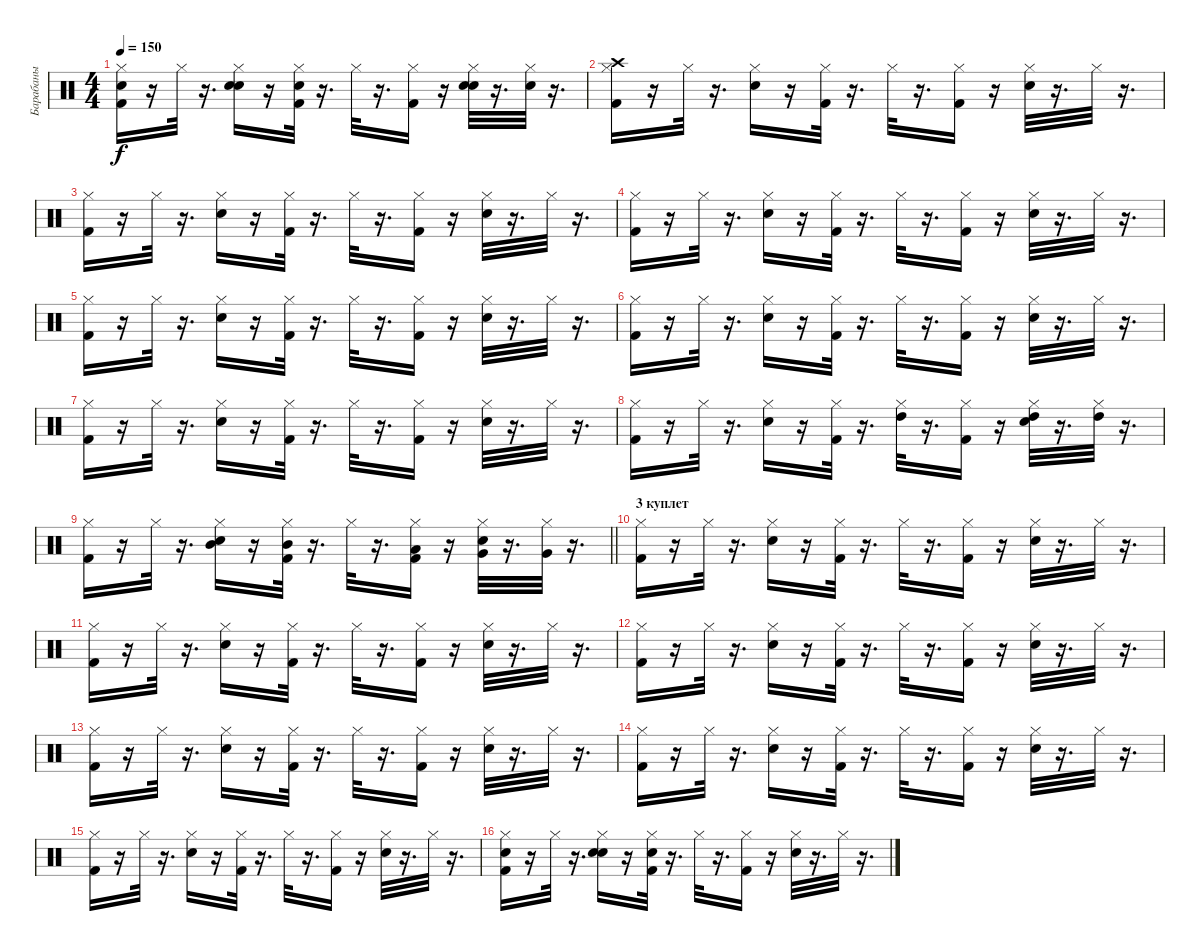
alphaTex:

\track ("Барабаны" "Барабаны") {instrument percussion}
\staff {score}
\articulation defaults
\ts (4 4)
\tempo 150
\clef neutral
\ks c
("Hand Clap (hit)" "Kick (hit) 2" "Hi-Hat (closed)").16{dy f} r.16 "Hi-Hat (closed)".32 r.16{d} ("Electric Snare (hit)" "Hand Clap (hit)" "Hi-Hat (closed)").16 r.16 ("Kick (hit) 2" "Hand Clap (hit)" "Hi-Hat (closed)").32 r.16{d} "Hi-Hat (closed)".32 r.16{d} ("Kick (hit) 2" "Hi-Hat (closed)").16 r.16 ("Electric Snare (hit)" "Hi-Hat (closed)" "Hand Clap (hit)").32 r.16{d} ("Hi-Hat (closed)" "Hand Clap (hit)").32 r.16{d} |
("Hi-Hat (closed)" "Crash high (hit)" "Kick (hit) 2").16 r.16 "Hi-Hat (closed)".32 r.16{d} ("Electric Snare (hit)" "Hi-Hat (closed)").16 r.16 ("Hi-Hat (closed)" "Kick (hit) 2").32 r.16{d} "Hi-Hat (closed)".32 r.16{d} ("Hi-Hat (closed)" "Kick (hit) 2").16 r.16 ("Hi-Hat (closed)" "Electric Snare (hit)").32 r.16{d} "Hi-Hat (closed)".32 r.16{d} |
("Hi-Hat (closed)" "Kick (hit) 2").16 r.16 "Hi-Hat (closed)".32 r.16{d} ("Electric Snare (hit)" "Hi-Hat (closed)").16 r.16 ("Kick (hit) 2" "Hi-Hat (closed)").32 r.16{d} "Hi-Hat (closed)".32 r.16{d} ("Kick (hit) 2" "Hi-Hat (closed)").16 r.16 ("Electric Snare (hit)" "Hi-Hat (closed)").32 r.16{d} "Hi-Hat (closed)".32 r.16{d} |
("Hi-Hat (closed)" "Kick (hit) 2").16 r.16 "Hi-Hat (closed)".32 r.16{d} ("Electric Snare (hit)" "Hi-Hat (closed)").16 r.16 ("Kick (hit) 2" "Hi-Hat (closed)").32 r.16{d} "Hi-Hat (closed)".32 r.16{d} ("Kick (hit) 2" "Hi-Hat (closed)").16 r.16 ("Electric Snare (hit)" "Hi-Hat (closed)").32 r.16{d} "Hi-Hat (closed)".32 r.16{d} |
("Kick (hit) 2" "Hi-Hat (closed)").16 r.16 "Hi-Hat (closed)".32 r.16{d} ("Electric Snare (hit)" "Hi-Hat (closed)").16 r.16 ("Kick (hit) 2" "Hi-Hat (closed)").32 r.16{d} "Hi-Hat (closed)".32 r.16{d} ("Kick (hit) 2" "Hi-Hat (closed)").16 r.16 ("Electric Snare (hit)" "Hi-Hat (closed)").32 r.16{d} "Hi-Hat (closed)".32 r.16{d} |
("Hi-Hat (closed)" "Kick (hit) 2").16 r.16 "Hi-Hat (closed)".32 r.16{d} ("Electric Snare (hit)" "Hi-Hat (closed)").16 r.16 ("Hi-Hat (closed)" "Kick (hit) 2").32 r.16{d} "Hi-Hat (closed)".32 r.16{d} ("Hi-Hat (closed)" "Kick (hit) 2").16 r.16 ("Electric Snare (hit)" "Hi-Hat (closed)").32 r.16{d} "Hi-Hat (closed)".32 r.16{d} |
("Hi-Hat (closed)" "Kick (hit) 2").16 r.16 "Hi-Hat (closed)".32 r.16{d} ("Electric Snare (hit)" "Hi-Hat (closed)").16 r.16 ("Kick (hit) 2" "Hi-Hat (closed)").32 r.16{d} "Hi-Hat (closed)".32 r.16{d} ("Kick (hit) 2" "Hi-Hat (closed)").16 r.16 ("Electric Snare (hit)" "Hi-Hat (closed)").32 r.16{d} "Hi-Hat (closed)".32 r.16{d} |
("Kick (hit) 2" "Hi-Hat (closed)").16 r.16 "Hi-Hat (closed)".32 r.16{d} ("Electric Snare (hit)" "Hi-Hat (closed)").16 r.16 ("Kick (hit) 2" "Hi-Hat (closed)").32 r.16{d} ("Hi-Hat (closed)" "High Tom (hit)").32 r.16{d} ("Kick (hit) 2" "Hi-Hat (closed)").16 r.16 ("Electric Snare (hit)" "High Tom (hit)" "Hi-Hat (closed)").32 r.16{d} ("Hi-Hat (closed)" "High Tom (hit)").32 r.16{d} |
\barLineRight lightlight
("Hi-Hat (closed)" "Kick (hit) 2").16 r.16 "Hi-Hat (closed)".32 r.16{d} ("Electric Snare (hit)" "Hi-Hat (closed)" "Mid Tom (hit)").16 r.16 ("Kick (hit) 2" "Hi-Hat (closed)" "Mid Tom (hit)").32 r.16{d} "Hi-Hat (closed)".32 r.16{d} ("Kick (hit) 2" "Hi-Hat (closed)" "Low Tom (hit)").16 r.16 ("Electric Snare (hit)" "Very Low Tom (hit)" "Hi-Hat (closed)").32 r.16{d} ("Hi-Hat (closed)" "Very Low Tom (hit)").32 r.16{d} |
\section ("" "3 куплет")
("Hi-Hat (closed)" "Kick (hit) 2").16 r.16 "Hi-Hat (closed)".32 r.16{d} ("Hi-Hat (closed)" "Electric Snare (hit)").16 r.16 ("Kick (hit) 2" "Hi-Hat (closed)").32 r.16{d} "Hi-Hat (closed)".32 r.16{d} ("Hi-Hat (closed)" "Kick (hit) 2").16 r.16 ("Electric Snare (hit)" "Hi-Hat (closed)").32 r.16{d} "Hi-Hat (closed)".32 r.16{d} |
("Kick (hit) 2" "Hi-Hat (closed)").16 r.16 "Hi-Hat (closed)".32 r.16{d} ("Electric Snare (hit)" "Hi-Hat (closed)").16 r.16 ("Kick (hit) 2" "Hi-Hat (closed)").32 r.16{d} "Hi-Hat (closed)".32 r.16{d} ("Kick (hit) 2" "Hi-Hat (closed)").16 r.16 ("Electric Snare (hit)" "Hi-Hat (closed)").32 r.16{d} "Hi-Hat (closed)".32 r.16{d} |
("Hi-Hat (closed)" "Kick (hit) 2").16 r.16 "Hi-Hat (closed)".32 r.16{d} ("Electric Snare (hit)" "Hi-Hat (closed)").16 r.16 ("Kick (hit) 2" "Hi-Hat (closed)").32 r.16{d} "Hi-Hat (closed)".32 r.16{d} ("Kick (hit) 2" "Hi-Hat (closed)").16 r.16 ("Electric Snare (hit)" "Hi-Hat (closed)").32 r.16{d} "Hi-Hat (closed)".32 r.16{d} |
("Kick (hit) 2" "Hi-Hat (closed)").16 r.16 "Hi-Hat (closed)".32 r.16{d} ("Electric Snare (hit)" "Hi-Hat (closed)").16 r.16 ("Kick (hit) 2" "Hi-Hat (closed)").32 r.16{d} "Hi-Hat (closed)".32 r.16{d} ("Kick (hit) 2" "Hi-Hat (closed)").16 r.16 ("Electric Snare (hit)" "Hi-Hat (closed)").32 r.16{d} "Hi-Hat (closed)".32 r.16{d} |
("Hi-Hat (closed)" "Kick (hit) 2").16 r.16 "Hi-Hat (closed)".32 r.16{d} ("Hi-Hat (closed)" "Electric Snare (hit)").16 r.16 ("Hi-Hat (closed)" "Kick (hit) 2").32 r.16{d} "Hi-Hat (closed)".32 r.16{d} ("Kick (hit) 2" "Hi-Hat (closed)").16 r.16 ("Electric Snare (hit)" "Hi-Hat (closed)").32 r.16{d} "Hi-Hat (closed)".32 r.16{d} |
("Kick (hit) 2" "Hi-Hat (closed)").16 r.16 "Hi-Hat (closed)".32 r.16{d} ("Electric Snare (hit)" "Hi-Hat (closed)").16 r.16 ("Kick (hit) 2" "Hi-Hat (closed)").32 r.16{d} "Hi-Hat (closed)".32 r.16{d} ("Kick (hit) 2" "Hi-Hat (closed)").16 r.16 ("Electric Snare (hit)" "Hi-Hat (closed)").32 r.16{d} "Hi-Hat (closed)".32 r.16{d} |
("Hi-Hat (closed)" "Kick (hit) 2" "Hand Clap (hit)").16 r.16 "Hi-Hat (closed)".32 r.16{d} ("Electric Snare (hit)" "Hand Clap (hit)" "Hi-Hat (closed)").16 r.16 ("Kick (hit) 2" "Hand Clap (hit)" "Hi-Hat (closed)").32 r.16{d} "Hi-Hat (closed)".32 r.16{d} ("Kick (hit) 2" "Hi-Hat (closed)").16 r.16 ("Electric Snare (hit)" "Hi-Hat (closed)").32 r.16{d} "Hi-Hat (closed)".32 r.16{d}
